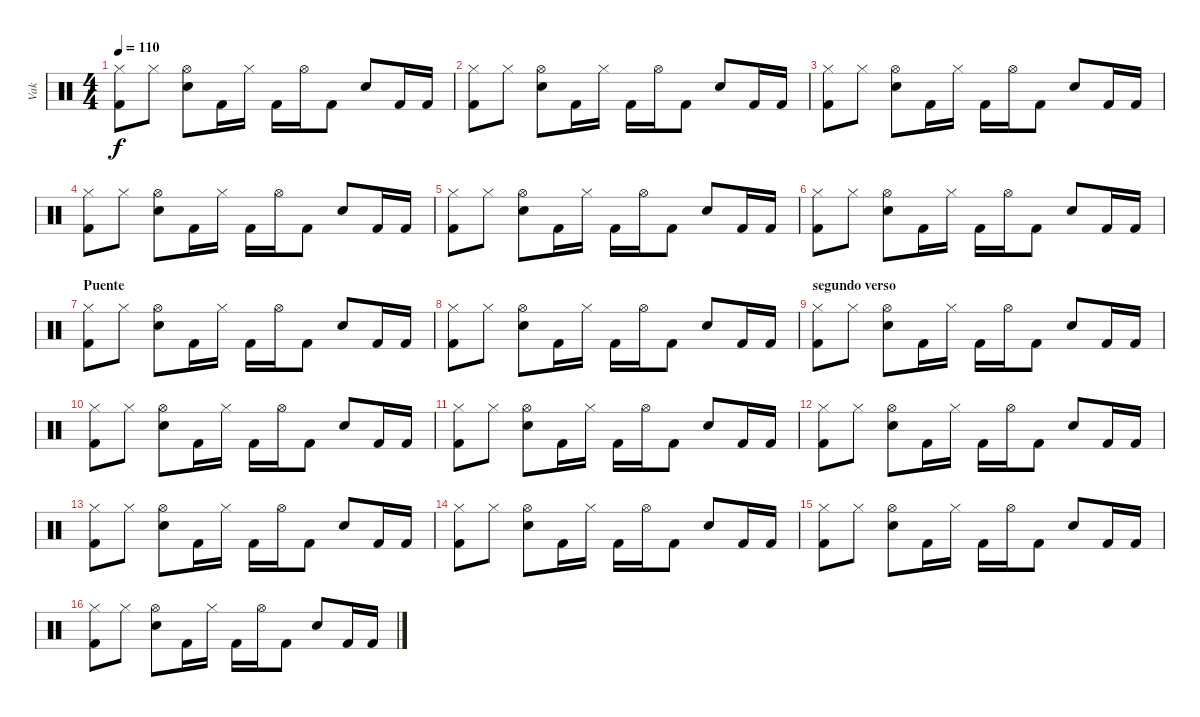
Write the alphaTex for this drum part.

\track ("Vak" "Vak") {instrument percussion}
\staff {score}
\articulation defaults
\ts (4 4)
\tempo 110
\clef neutral
\ks c
("Kick (hit) 2" "Hi-Hat (closed)").8{dy f} "Hi-Hat (closed)".8 ("Snare (hit) 2" "Hi-Hat (open)").8 "Kick (hit) 2".16 "Hi-Hat (closed)".16 "Kick (hit) 2".16 "Hi-Hat (open)".16 "Kick (hit) 2".8 "Snare (hit) 2".8 "Kick (hit) 2".16 "Kick (hit) 2".16 |
("Kick (hit) 2" "Hi-Hat (closed)").8 "Hi-Hat (closed)".8 ("Snare (hit) 2" "Hi-Hat (open)").8 "Kick (hit) 2".16 "Hi-Hat (closed)".16 "Kick (hit) 2".16 "Hi-Hat (open)".16 "Kick (hit) 2".8 "Snare (hit) 2".8 "Kick (hit) 2".16 "Kick (hit) 2".16 |
("Kick (hit) 2" "Hi-Hat (closed)").8 "Hi-Hat (closed)".8 ("Snare (hit) 2" "Hi-Hat (open)").8 "Kick (hit) 2".16 "Hi-Hat (closed)".16 "Kick (hit) 2".16 "Hi-Hat (open)".16 "Kick (hit) 2".8 "Snare (hit) 2".8 "Kick (hit) 2".16 "Kick (hit) 2".16 |
("Kick (hit) 2" "Hi-Hat (closed)").8 "Hi-Hat (closed)".8 ("Snare (hit) 2" "Hi-Hat (open)").8 "Kick (hit) 2".16 "Hi-Hat (closed)".16 "Kick (hit) 2".16 "Hi-Hat (open)".16 "Kick (hit) 2".8 "Snare (hit) 2".8 "Kick (hit) 2".16 "Kick (hit) 2".16 |
("Kick (hit) 2" "Hi-Hat (closed)").8 "Hi-Hat (closed)".8 ("Snare (hit) 2" "Hi-Hat (open)").8 "Kick (hit) 2".16 "Hi-Hat (closed)".16 "Kick (hit) 2".16 "Hi-Hat (open)".16 "Kick (hit) 2".8 "Snare (hit) 2".8 "Kick (hit) 2".16 "Kick (hit) 2".16 |
("Kick (hit) 2" "Hi-Hat (closed)").8 "Hi-Hat (closed)".8 ("Snare (hit) 2" "Hi-Hat (open)").8 "Kick (hit) 2".16 "Hi-Hat (closed)".16 "Kick (hit) 2".16 "Hi-Hat (open)".16 "Kick (hit) 2".8 "Snare (hit) 2".8 "Kick (hit) 2".16 "Kick (hit) 2".16 |
\section ("" "Puente")
("Kick (hit) 2" "Hi-Hat (closed)").8 "Hi-Hat (closed)".8 ("Snare (hit) 2" "Hi-Hat (open)").8 "Kick (hit) 2".16 "Hi-Hat (closed)".16 "Kick (hit) 2".16 "Hi-Hat (open)".16 "Kick (hit) 2".8 "Snare (hit) 2".8 "Kick (hit) 2".16 "Kick (hit) 2".16 |
("Kick (hit) 2" "Hi-Hat (closed)").8 "Hi-Hat (closed)".8 ("Snare (hit) 2" "Hi-Hat (open)").8 "Kick (hit) 2".16 "Hi-Hat (closed)".16 "Kick (hit) 2".16 "Hi-Hat (open)".16 "Kick (hit) 2".8 "Snare (hit) 2".8 "Kick (hit) 2".16 "Kick (hit) 2".16 |
\section ("" "segundo verso")
("Kick (hit) 2" "Hi-Hat (closed)").8 "Hi-Hat (closed)".8 ("Snare (hit) 2" "Hi-Hat (open)").8 "Kick (hit) 2".16 "Hi-Hat (closed)".16 "Kick (hit) 2".16 "Hi-Hat (open)".16 "Kick (hit) 2".8 "Snare (hit) 2".8 "Kick (hit) 2".16 "Kick (hit) 2".16 |
("Kick (hit) 2" "Hi-Hat (closed)").8 "Hi-Hat (closed)".8 ("Snare (hit) 2" "Hi-Hat (open)").8 "Kick (hit) 2".16 "Hi-Hat (closed)".16 "Kick (hit) 2".16 "Hi-Hat (open)".16 "Kick (hit) 2".8 "Snare (hit) 2".8 "Kick (hit) 2".16 "Kick (hit) 2".16 |
("Kick (hit) 2" "Hi-Hat (closed)").8 "Hi-Hat (closed)".8 ("Snare (hit) 2" "Hi-Hat (open)").8 "Kick (hit) 2".16 "Hi-Hat (closed)".16 "Kick (hit) 2".16 "Hi-Hat (open)".16 "Kick (hit) 2".8 "Snare (hit) 2".8 "Kick (hit) 2".16 "Kick (hit) 2".16 |
("Kick (hit) 2" "Hi-Hat (closed)").8 "Hi-Hat (closed)".8 ("Snare (hit) 2" "Hi-Hat (open)").8 "Kick (hit) 2".16 "Hi-Hat (closed)".16 "Kick (hit) 2".16 "Hi-Hat (open)".16 "Kick (hit) 2".8 "Snare (hit) 2".8 "Kick (hit) 2".16 "Kick (hit) 2".16 |
("Kick (hit) 2" "Hi-Hat (closed)").8 "Hi-Hat (closed)".8 ("Snare (hit) 2" "Hi-Hat (open)").8 "Kick (hit) 2".16 "Hi-Hat (closed)".16 "Kick (hit) 2".16 "Hi-Hat (open)".16 "Kick (hit) 2".8 "Snare (hit) 2".8 "Kick (hit) 2".16 "Kick (hit) 2".16 |
("Kick (hit) 2" "Hi-Hat (closed)").8 "Hi-Hat (closed)".8 ("Snare (hit) 2" "Hi-Hat (open)").8 "Kick (hit) 2".16 "Hi-Hat (closed)".16 "Kick (hit) 2".16 "Hi-Hat (open)".16 "Kick (hit) 2".8 "Snare (hit) 2".8 "Kick (hit) 2".16 "Kick (hit) 2".16 |
("Kick (hit) 2" "Hi-Hat (closed)").8 "Hi-Hat (closed)".8 ("Snare (hit) 2" "Hi-Hat (open)").8 "Kick (hit) 2".16 "Hi-Hat (closed)".16 "Kick (hit) 2".16 "Hi-Hat (open)".16 "Kick (hit) 2".8 "Snare (hit) 2".8 "Kick (hit) 2".16 "Kick (hit) 2".16 |
("Kick (hit) 2" "Hi-Hat (closed)").8 "Hi-Hat (closed)".8 ("Snare (hit) 2" "Hi-Hat (open)").8 "Kick (hit) 2".16 "Hi-Hat (closed)".16 "Kick (hit) 2".16 "Hi-Hat (open)".16 "Kick (hit) 2".8 "Snare (hit) 2".8 "Kick (hit) 2".16 "Kick (hit) 2".16
